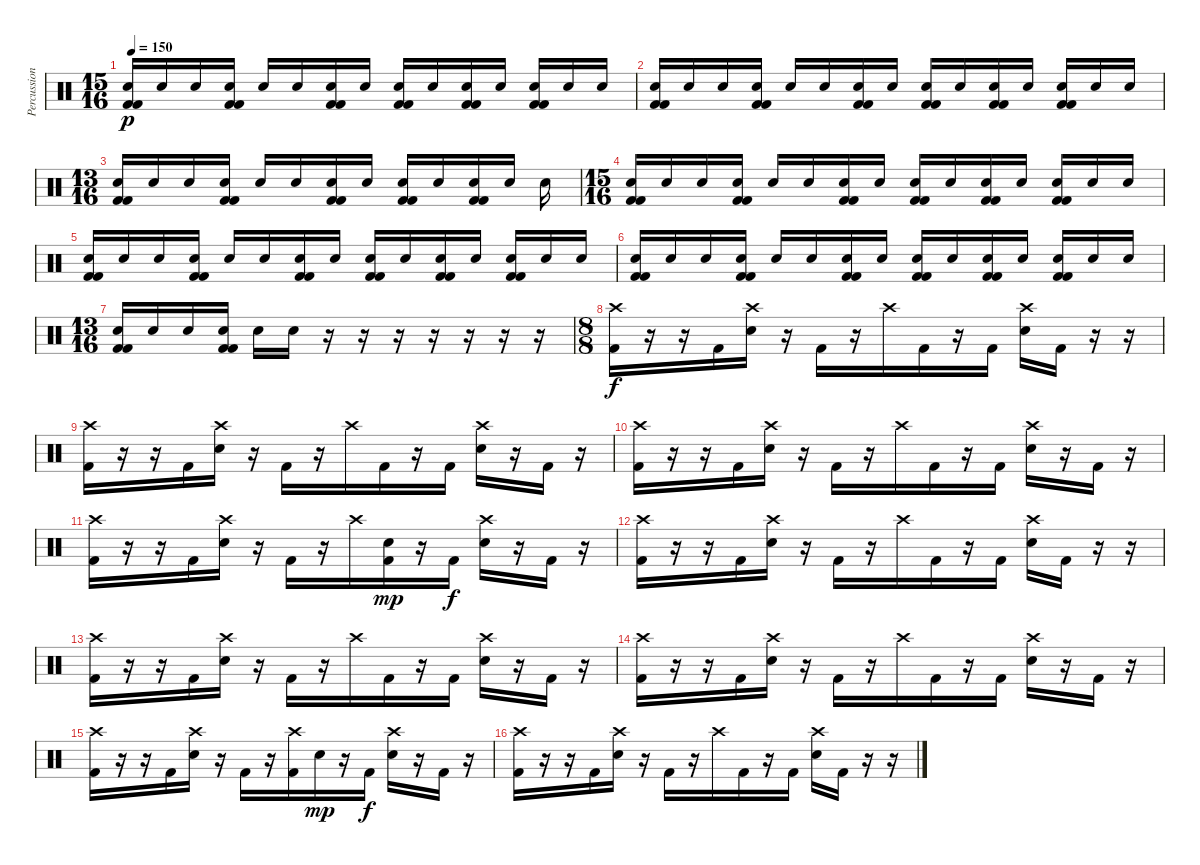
\track ("Percussions" "Percussion") {instrument percussion}
\staff {score}
\articulation defaults
\ts (15 16)
\tempo 150
\clef neutral
\ks c
("Electric Snare (hit)" "Kick (hit) 2" "Kick (hit) 2").16{dy p} "Electric Snare (hit)".16 "Electric Snare (hit)".16 ("Electric Snare (hit)" "Kick (hit) 2" "Kick (hit) 2").16 "Electric Snare (hit)".16 "Electric Snare (hit)".16 ("Electric Snare (hit)" "Kick (hit) 2" "Kick (hit) 2").16 "Electric Snare (hit)".16 ("Electric Snare (hit)" "Kick (hit) 2" "Kick (hit) 2").16 "Electric Snare (hit)".16 ("Electric Snare (hit)" "Kick (hit) 2" "Kick (hit) 2").16 "Electric Snare (hit)".16 ("Electric Snare (hit)" "Kick (hit) 2" "Kick (hit) 2").16 "Electric Snare (hit)".16 "Electric Snare (hit)".16 |
("Electric Snare (hit)" "Kick (hit) 2" "Kick (hit) 2").16 "Electric Snare (hit)".16 "Electric Snare (hit)".16 ("Electric Snare (hit)" "Kick (hit) 2" "Kick (hit) 2").16 "Electric Snare (hit)".16 "Electric Snare (hit)".16 ("Electric Snare (hit)" "Kick (hit) 2" "Kick (hit) 2").16 "Electric Snare (hit)".16 ("Electric Snare (hit)" "Kick (hit) 2" "Kick (hit) 2").16 "Electric Snare (hit)".16 ("Electric Snare (hit)" "Kick (hit) 2" "Kick (hit) 2").16 "Electric Snare (hit)".16 ("Electric Snare (hit)" "Kick (hit) 2" "Kick (hit) 2").16 "Electric Snare (hit)".16 "Electric Snare (hit)".16 |
\ts (13 16)
("Electric Snare (hit)" "Kick (hit) 2" "Kick (hit) 2").16 "Electric Snare (hit)".16 "Electric Snare (hit)".16 ("Electric Snare (hit)" "Kick (hit) 2" "Kick (hit) 2").16 "Electric Snare (hit)".16 "Electric Snare (hit)".16 ("Electric Snare (hit)" "Kick (hit) 2" "Kick (hit) 2").16 "Electric Snare (hit)".16 ("Electric Snare (hit)" "Kick (hit) 2" "Kick (hit) 2").16 "Electric Snare (hit)".16 ("Electric Snare (hit)" "Kick (hit) 2" "Kick (hit) 2").16 "Electric Snare (hit)".16 "Electric Snare (hit)".16 |
\ts (15 16)
("Electric Snare (hit)" "Kick (hit) 2" "Kick (hit) 2").16 "Electric Snare (hit)".16 "Electric Snare (hit)".16 ("Electric Snare (hit)" "Kick (hit) 2" "Kick (hit) 2").16 "Electric Snare (hit)".16 "Electric Snare (hit)".16 ("Electric Snare (hit)" "Kick (hit) 2" "Kick (hit) 2").16 "Electric Snare (hit)".16 ("Electric Snare (hit)" "Kick (hit) 2" "Kick (hit) 2").16 "Electric Snare (hit)".16 ("Electric Snare (hit)" "Kick (hit) 2" "Kick (hit) 2").16 "Electric Snare (hit)".16 ("Electric Snare (hit)" "Kick (hit) 2" "Kick (hit) 2").16 "Electric Snare (hit)".16 "Electric Snare (hit)".16 |
("Electric Snare (hit)" "Kick (hit) 2" "Kick (hit) 2").16 "Electric Snare (hit)".16 "Electric Snare (hit)".16 ("Electric Snare (hit)" "Kick (hit) 2" "Kick (hit) 2").16 "Electric Snare (hit)".16 "Electric Snare (hit)".16 ("Electric Snare (hit)" "Kick (hit) 2" "Kick (hit) 2").16 "Electric Snare (hit)".16 ("Electric Snare (hit)" "Kick (hit) 2" "Kick (hit) 2").16 "Electric Snare (hit)".16 ("Electric Snare (hit)" "Kick (hit) 2" "Kick (hit) 2").16 "Electric Snare (hit)".16 ("Electric Snare (hit)" "Kick (hit) 2" "Kick (hit) 2").16 "Electric Snare (hit)".16 "Electric Snare (hit)".16 |
("Electric Snare (hit)" "Kick (hit) 2" "Kick (hit) 2").16 "Electric Snare (hit)".16 "Electric Snare (hit)".16 ("Electric Snare (hit)" "Kick (hit) 2" "Kick (hit) 2").16 "Electric Snare (hit)".16 "Electric Snare (hit)".16 ("Electric Snare (hit)" "Kick (hit) 2" "Kick (hit) 2").16 "Electric Snare (hit)".16 ("Electric Snare (hit)" "Kick (hit) 2" "Kick (hit) 2").16 "Electric Snare (hit)".16 ("Electric Snare (hit)" "Kick (hit) 2" "Kick (hit) 2").16 "Electric Snare (hit)".16 ("Electric Snare (hit)" "Kick (hit) 2" "Kick (hit) 2").16 "Electric Snare (hit)".16 "Electric Snare (hit)".16 |
\ts (13 16)
("Electric Snare (hit)" "Kick (hit) 2" "Kick (hit) 2").16 "Electric Snare (hit)".16 "Electric Snare (hit)".16 ("Electric Snare (hit)" "Kick (hit) 2" "Kick (hit) 2").16 "Electric Snare (hit)".16 "Electric Snare (hit)".16 r.16 r.16 r.16 r.16 r.16 r.16 r.16 |
\ts (8 8)
("Crash high (hit)" "Kick (hit) 2").16{dy f} r.16 r.16 "Kick (hit) 2".16 ("Crash high (hit)" "Electric Snare (hit)").16 r.16 "Kick (hit) 2".16 r.16 "Crash high (hit)".16 "Kick (hit) 2".16 r.16 "Kick (hit) 2".16 ("Crash high (hit)" "Electric Snare (hit)").16 "Kick (hit) 2".16 r.16 r.16 |
("Crash high (hit)" "Kick (hit) 2").16 r.16 r.16 "Kick (hit) 2".16 ("Crash high (hit)" "Electric Snare (hit)").16 r.16 "Kick (hit) 2".16 r.16 "Crash high (hit)".16 "Kick (hit) 2".16 r.16 "Kick (hit) 2".16 ("Crash high (hit)" "Electric Snare (hit)").16 r.16 "Kick (hit) 2".16 r.16 |
("Crash high (hit)" "Kick (hit) 2").16 r.16 r.16 "Kick (hit) 2".16 ("Crash high (hit)" "Electric Snare (hit)").16 r.16 "Kick (hit) 2".16 r.16 "Crash high (hit)".16 "Kick (hit) 2".16 r.16 "Kick (hit) 2".16 ("Crash high (hit)" "Electric Snare (hit)").16 r.16 "Kick (hit) 2".16 r.16 |
("Crash high (hit)" "Kick (hit) 2").16 r.16 r.16 "Kick (hit) 2".16 ("Crash high (hit)" "Electric Snare (hit)").16 r.16 "Kick (hit) 2".16 r.16 "Crash high (hit)".16 ("Electric Snare (hit)" "Kick (hit) 2").16{dy mp} r.16 "Kick (hit) 2".16{dy f} ("Crash high (hit)" "Electric Snare (hit)").16 r.16 "Kick (hit) 2".16 r.16 |
("Crash high (hit)" "Kick (hit) 2").16 r.16 r.16 "Kick (hit) 2".16 ("Crash high (hit)" "Electric Snare (hit)").16 r.16 "Kick (hit) 2".16 r.16 "Crash high (hit)".16 "Kick (hit) 2".16 r.16 "Kick (hit) 2".16 ("Crash high (hit)" "Electric Snare (hit)").16 "Kick (hit) 2".16 r.16 r.16 |
("Crash high (hit)" "Kick (hit) 2").16 r.16 r.16 "Kick (hit) 2".16 ("Crash high (hit)" "Electric Snare (hit)").16 r.16 "Kick (hit) 2".16 r.16 "Crash high (hit)".16 "Kick (hit) 2".16 r.16 "Kick (hit) 2".16 ("Crash high (hit)" "Electric Snare (hit)").16 r.16 "Kick (hit) 2".16 r.16 |
("Crash high (hit)" "Kick (hit) 2").16 r.16 r.16 "Kick (hit) 2".16 ("Crash high (hit)" "Electric Snare (hit)").16 r.16 "Kick (hit) 2".16 r.16 "Crash high (hit)".16 "Kick (hit) 2".16 r.16 "Kick (hit) 2".16 ("Crash high (hit)" "Electric Snare (hit)").16 r.16 "Kick (hit) 2".16 r.16 |
("Crash high (hit)" "Kick (hit) 2").16 r.16 r.16 "Kick (hit) 2".16 ("Crash high (hit)" "Electric Snare (hit)").16 r.16 "Kick (hit) 2".16 r.16 ("Crash high (hit)" "Kick (hit) 2").16 "Electric Snare (hit)".16{dy mp} r.16 "Kick (hit) 2".16{dy f} ("Crash high (hit)" "Electric Snare (hit)").16 r.16 "Kick (hit) 2".16 r.16 |
("Crash high (hit)" "Kick (hit) 2").16 r.16 r.16 "Kick (hit) 2".16 ("Crash high (hit)" "Electric Snare (hit)").16 r.16 "Kick (hit) 2".16 r.16 "Crash high (hit)".16 "Kick (hit) 2".16 r.16 "Kick (hit) 2".16 ("Crash high (hit)" "Electric Snare (hit)").16 "Kick (hit) 2".16 r.16 r.16
